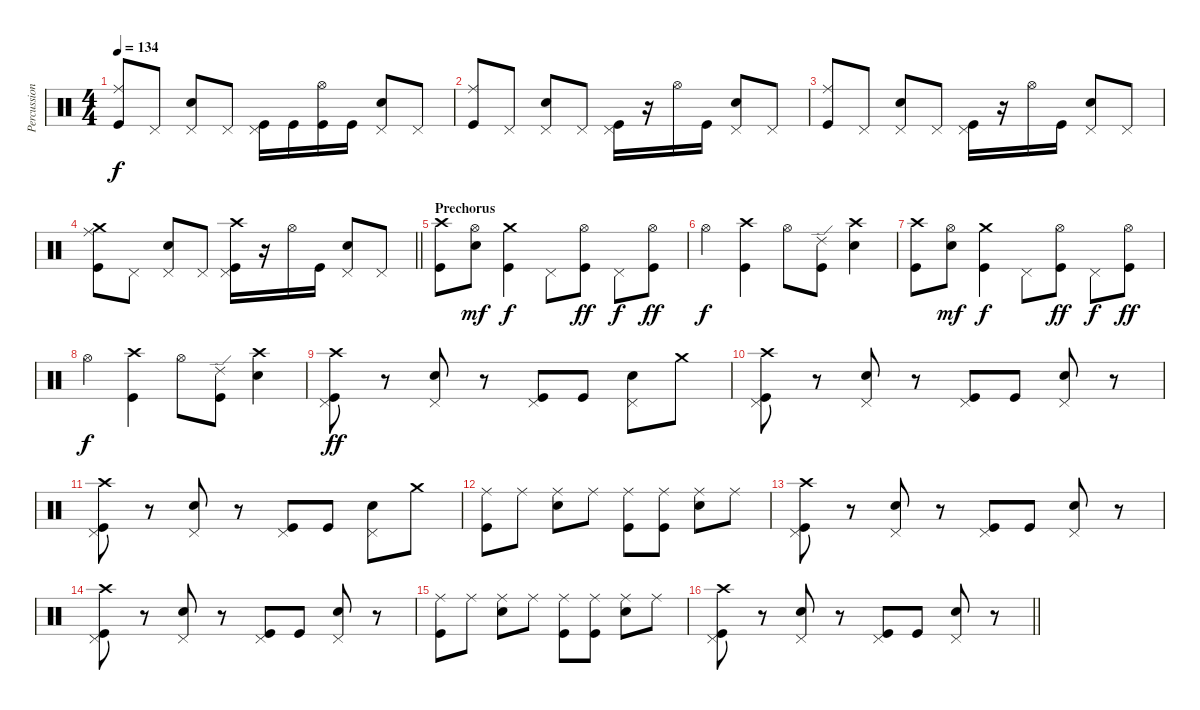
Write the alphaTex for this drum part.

\track ("Percussion" "Percussion") {instrument percussion}
\staff {score}
\articulation defaults
\ts (4 4)
\tempo 134
\clef neutral
\ks c
("Ride (middle)" "Kick (hit)").8{dy f} "Pedal Hi-Hat (hit)".8 ("Pedal Hi-Hat (hit)" "Electric Snare (hit)").8 "Pedal Hi-Hat (hit)".8 ("Pedal Hi-Hat (hit)" "Kick (hit)").16 "Kick (hit)".16 ("Hi-Hat (open)" "Kick (hit)").16 "Kick (hit)".16 ("Pedal Hi-Hat (hit)" "Electric Snare (hit)").8 "Pedal Hi-Hat (hit)".8 |
("Ride (middle)" "Kick (hit)").8 "Pedal Hi-Hat (hit)".8 ("Pedal Hi-Hat (hit)" "Electric Snare (hit)").8 "Pedal Hi-Hat (hit)".8 ("Pedal Hi-Hat (hit)" "Kick (hit)").16 r.16 "Hi-Hat (open)".16 "Kick (hit)".16 ("Pedal Hi-Hat (hit)" "Electric Snare (hit)").8 "Pedal Hi-Hat (hit)".8 |
("Ride (middle)" "Kick (hit)").8 "Pedal Hi-Hat (hit)".8 ("Pedal Hi-Hat (hit)" "Electric Snare (hit)").8 "Pedal Hi-Hat (hit)".8 ("Pedal Hi-Hat (hit)" "Kick (hit)").16 r.16 "Hi-Hat (open)".16 "Kick (hit)".16 ("Pedal Hi-Hat (hit)" "Electric Snare (hit)").8 "Pedal Hi-Hat (hit)".8 |
\barLineRight lightlight
("Crash medium (hit)" "Ride (middle)" "Kick (hit)").8 "Pedal Hi-Hat (hit)".8 ("Pedal Hi-Hat (hit)" "Electric Snare (hit)").8 "Pedal Hi-Hat (hit)".8 ("Crash high (hit)" "Pedal Hi-Hat (hit)" "Kick (hit)").16 r.16 "Hi-Hat (open)".16 "Kick (hit)".16 ("Pedal Hi-Hat (hit)" "Electric Snare (hit)").8 "Pedal Hi-Hat (hit)".8 |
\section ("" "Prechorus")
("Crash high (hit)" "Kick (hit)").8 ("Hi-Hat (open)" "Electric Snare (hit)").8{dy mf} ("Crash medium (hit)" "Kick (hit)").4{dy f} "Pedal Hi-Hat (hit)".8 ("Hi-Hat (open)" "Kick (hit)").8{dy ff} "Pedal Hi-Hat (hit)".8{dy f} ("Hi-Hat (open)" "Kick (hit)").8{dy ff} |
"Hi-Hat (open)".4{dy f} ("Crash high (hit)" "Kick (hit)").4 "Hi-Hat (open)".8 ("Ride (edge) 2" "Kick (hit)").8 ("Crash high (hit)" "Electric Snare (hit)").4 |
("Crash high (hit)" "Kick (hit)").8 ("Hi-Hat (open)" "Electric Snare (hit)").8{dy mf} ("Crash medium (hit)" "Kick (hit)").4{dy f} "Pedal Hi-Hat (hit)".8 ("Hi-Hat (open)" "Kick (hit)").8{dy ff} "Pedal Hi-Hat (hit)".8{dy f} ("Hi-Hat (open)" "Kick (hit)").8{dy ff} |
"Hi-Hat (open)".4{dy f} ("Crash high (hit)" "Kick (hit)").4 "Hi-Hat (open)".8 ("Ride (edge) 2" "Kick (hit)").8 ("Crash high (hit)" "Electric Snare (hit)").4 |
("Crash high (hit)" "Kick (hit)" "Pedal Hi-Hat (hit)").8{dy ff} r.8 ("Electric Snare (hit)" "Pedal Hi-Hat (hit)").8 r.8 ("Kick (hit)" "Pedal Hi-Hat (hit)").8 "Kick (hit)".8 ("Electric Snare (hit)" "Pedal Hi-Hat (hit)").8 "Crash medium (hit)".8 |
("Crash high (hit)" "Kick (hit)" "Pedal Hi-Hat (hit)").8 r.8 ("Electric Snare (hit)" "Pedal Hi-Hat (hit)").8 r.8 ("Kick (hit)" "Pedal Hi-Hat (hit)").8 "Kick (hit)".8 ("Electric Snare (hit)" "Pedal Hi-Hat (hit)").8 r.8 |
("Crash high (hit)" "Kick (hit)" "Pedal Hi-Hat (hit)").8 r.8 ("Electric Snare (hit)" "Pedal Hi-Hat (hit)").8 r.8 ("Kick (hit)" "Pedal Hi-Hat (hit)").8 "Kick (hit)".8 ("Electric Snare (hit)" "Pedal Hi-Hat (hit)").8 "Crash medium (hit)".8 |
("Kick (hit)" "Ride (middle)").8 "Ride (middle)".8 ("Electric Snare (hit)" "Ride (middle)").8 "Ride (middle)".8 ("Kick (hit)" "Ride (middle)").8 ("Kick (hit)" "Ride (middle)").8 ("Electric Snare (hit)" "Ride (middle)").8 "Ride (middle)".8 |
("Crash high (hit)" "Kick (hit)" "Pedal Hi-Hat (hit)").8 r.8 ("Electric Snare (hit)" "Pedal Hi-Hat (hit)").8 r.8 ("Kick (hit)" "Pedal Hi-Hat (hit)").8 "Kick (hit)".8 ("Electric Snare (hit)" "Pedal Hi-Hat (hit)").8 r.8 |
("Crash high (hit)" "Kick (hit)" "Pedal Hi-Hat (hit)").8 r.8 ("Electric Snare (hit)" "Pedal Hi-Hat (hit)").8 r.8 ("Kick (hit)" "Pedal Hi-Hat (hit)").8 "Kick (hit)".8 ("Electric Snare (hit)" "Pedal Hi-Hat (hit)").8 r.8 |
("Kick (hit)" "Ride (middle)").8 "Ride (middle)".8 ("Electric Snare (hit)" "Ride (middle)").8 "Ride (middle)".8 ("Kick (hit)" "Ride (middle)").8 ("Kick (hit)" "Ride (middle)").8 ("Electric Snare (hit)" "Ride (middle)").8 "Ride (middle)".8 |
\barLineRight lightlight
("Crash high (hit)" "Kick (hit)" "Pedal Hi-Hat (hit)").8 r.8 ("Electric Snare (hit)" "Pedal Hi-Hat (hit)").8 r.8 ("Kick (hit)" "Pedal Hi-Hat (hit)").8 "Kick (hit)".8 ("Electric Snare (hit)" "Pedal Hi-Hat (hit)").8 r.8
